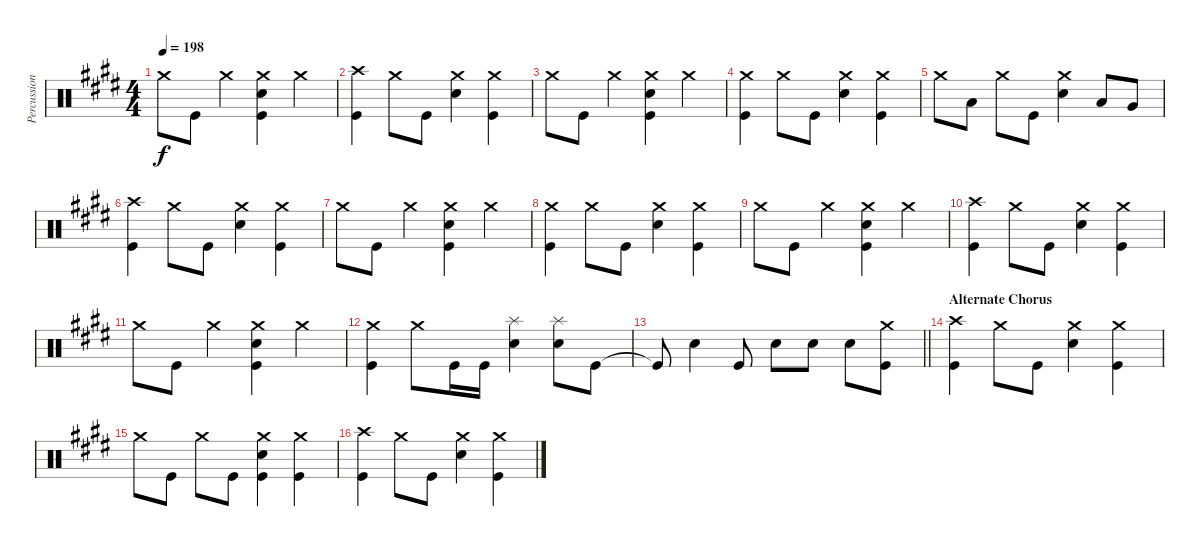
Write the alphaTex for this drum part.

\track ("Percussion" "Percussion") {instrument percussion}
\staff {score}
\articulation defaults
\ts (4 4)
\tempo 198
\clef neutral
\ks e "Crash medium (hit)".8{dy f} "Kick (hit)".8 "Crash medium (hit)".4
("Crash medium (hit)" "Electric Snare (hit)" "Kick (hit)").4 "Crash medium (hit)".4 |
("Crash high (hit)" "Kick (hit)").4 "Crash medium (hit)".8 "Kick (hit)".8 ("Crash medium (hit)" "Electric Snare (hit)").4 ("Crash medium (hit)" "Kick (hit)").4 |
"Crash medium (hit)".8 "Kick (hit)".8 "Crash medium (hit)".4 ("Crash medium (hit)" "Electric Snare (hit)" "Kick (hit)").4 "Crash medium (hit)".4 |
("Crash medium (hit)" "Kick (hit)").4 "Crash medium (hit)".8 "Kick (hit)".8 ("Crash medium (hit)" "Electric Snare (hit)").4 ("Crash medium (hit)" "Kick (hit)").4 |
"Crash medium (hit)".8 "Low Tom (hit)".8 "Crash medium (hit)".8 "Kick (hit)".8 ("Crash medium (hit)" "Electric Snare (hit)").4 "Low Tom (hit)".8 "Very Low Tom (hit)".8 |
("Crash high (hit)" "Kick (hit)").4 "Crash medium (hit)".8 "Kick (hit)".8 ("Crash medium (hit)" "Electric Snare (hit)").4 ("Crash medium (hit)" "Kick (hit)").4 |
"Crash medium (hit)".8 "Kick (hit)".8 "Crash medium (hit)".4 ("Crash medium (hit)" "Electric Snare (hit)" "Kick (hit)").4 "Crash medium (hit)".4 |
("Crash medium (hit)" "Kick (hit)").4 "Crash medium (hit)".8 "Kick (hit)".8 ("Crash medium (hit)" "Electric Snare (hit)").4 ("Crash medium (hit)" "Kick (hit)").4 |
"Crash medium (hit)".8 "Kick (hit)".8 "Crash medium (hit)".4 ("Crash medium (hit)" "Electric Snare (hit)" "Kick (hit)").4 "Crash medium (hit)".4 |
("Crash high (hit)" "Kick (hit)").4 "Crash medium (hit)".8 "Kick (hit)".8 ("Crash medium (hit)" "Electric Snare (hit)").4 ("Crash medium (hit)" "Kick (hit)").4 |
"Crash medium (hit)".8 "Kick (hit)".8 "Crash medium (hit)".4 ("Crash medium (hit)" "Electric Snare (hit)" "Kick (hit)").4 "Crash medium (hit)".4 |
("Crash medium (hit)" "Kick (hit)").4 "Crash medium (hit)".8 "Kick (hit)".16 "Kick (hit)".16 ("Splash (hit)" "Electric Snare (hit)").4 ("Splash (hit)" "Electric Snare (hit)").8 "Kick (hit)".8 |
\barLineRight lightlight "Kick (hit)"{t}.8 "Electric Snare (hit)".4 "Kick (hit)".8 "Electric Snare (hit)".8 "Electric Snare (hit)".8 "Electric Snare (hit)".8
("Crash medium (hit)" "Kick (hit)").8 |
\section ("" "Alternate Chorus")
("Crash high (hit)" "Kick (hit)").4 "Crash medium (hit)".8 "Kick (hit)".8 ("Crash medium (hit)" "Electric Snare (hit)").4 ("Crash medium (hit)" "Kick (hit)").4 |
"Crash medium (hit)".8 "Kick (hit)".8 "Crash medium (hit)".8 "Kick (hit)".8 ("Crash medium (hit)" "Electric Snare (hit)" "Kick (hit)").4 ("Crash medium (hit)" "Kick (hit)").4 |
("Crash high (hit)" "Kick (hit)").4 "Crash medium (hit)".8 "Kick (hit)".8 ("Crash medium (hit)" "Electric Snare (hit)").4 ("Crash medium (hit)" "Kick (hit)").4
